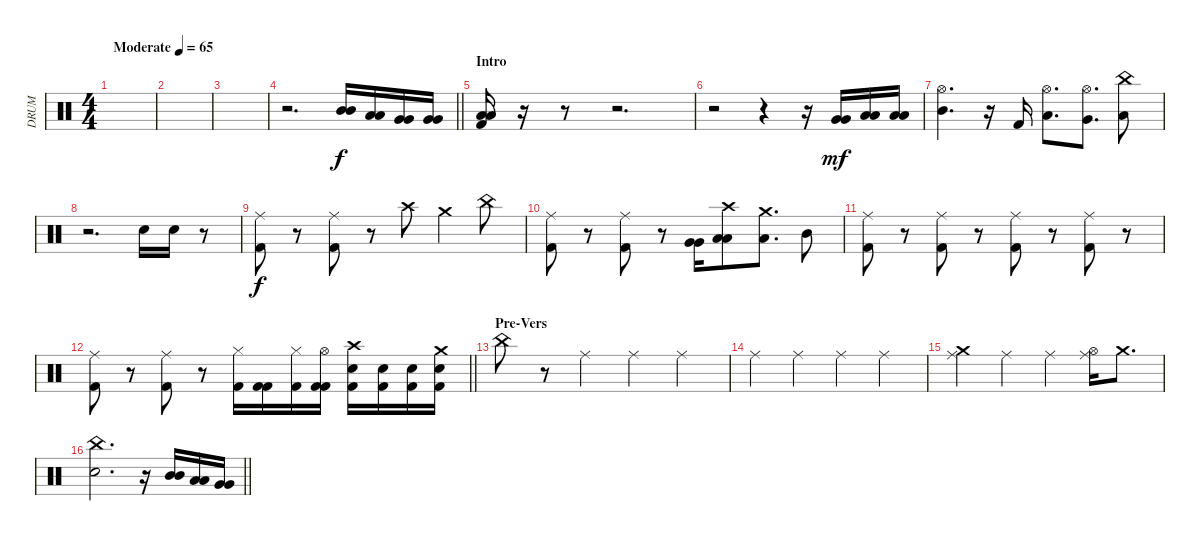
\track ("DRUM" "DRUM") {instrument percussion}
\staff {score}
\articulation defaults
\ts (4 4)
\tempo (65 "Moderate")
\clef neutral
\ks c
|
|
|
\barLineRight lightlight
r.2{d} ("Mid Tom (hit)" "Mid Tom (hit)").16 ("Low Tom (hit)" "Low Tom (hit)").16 ("Very Low Tom (hit)" "Very Low Tom (hit)").16 ("Very Low Tom (hit)" "Very Low Tom (hit)").16 |
\section ("" "Intro")
("Low Floor Tom (hit)" "Low Floor Tom (hit)" "Kick (hit) 2").16 r.16 r.8 r.2{d} |
r.2 r.4 r.16 ("Very Low Tom (hit)" "Very Low Tom (hit)").16{dy mf} ("Low Tom (hit)" "Low Tom (hit)").16 ("Low Tom (hit)" "Low Tom (hit)").16 |
("Hi-Hat (open)" "Mid Tom (hit)").4{d} r.16 "Kick (hit) 2".16 ("Hi-Hat (open)" "Low Floor Tom (hit)").8{d} ("Hi-Hat (open)" "Very Low Tom (hit)").8{d} ("China (hit)" "Low Tom (hit)").8 |
r.2{d} "Electric Snare (hit)".16 "Electric Snare (hit)".16 r.8 |
("Ride (middle)" "Kick (hit) 2").8{dy f} r.8 ("Ride (middle)" "Kick (hit) 2").8 r.8 "Crash high (hit)".8 "Crash medium (hit)".4 "China (hit)".8 |
("Ride (middle)" "Kick (hit) 2").8 r.8 ("Ride (middle)" "Kick (hit) 2").8 r.8 ("Very Low Tom (hit)" "Very Low Tom (hit)").16 ("Crash high (hit)" "Low Tom (hit)" "Low Tom (hit)").8 ("Crash medium (hit)" "Low Tom (hit)").8{d} "Mid Tom (hit)".8 |
("Ride (middle)" "Kick (hit) 2").8 r.8 ("Ride (middle)" "Kick (hit) 2").8 r.8 ("Ride (middle)" "Kick (hit) 2").8 r.8 ("Ride (middle)" "Kick (hit) 2").8 r.8 |
\barLineRight lightlight
("Ride (middle)" "Kick (hit) 2").8 r.8 ("Ride (middle)" "Kick (hit) 2").8 r.8 ("Kick (hit) 2" "Hi-Hat (closed)").16 ("Kick (hit) 2" "Kick (hit) 2").16 ("Kick (hit) 2" "Hi-Hat (closed)").16 ("Kick (hit) 2" "Kick (hit) 2" "Hi-Hat (open)").16 ("Snare (hit) 2" "Kick (hit) 2" "Crash high (hit)").16 ("Electric Snare (hit)" "Kick (hit) 2").16 ("Electric Snare (hit)" "Kick (hit) 2").16 ("Electric Snare (hit)" "Kick (hit) 2" "Crash medium (hit)").16 |
\section ("" "Pre-Vers")
"China (hit)".8 r.8 "Ride (middle)".4 "Ride (middle)".4 "Ride (middle)".4 |
"Ride (middle)".4 "Ride (middle)".4 "Ride (middle)".4 "Ride (middle)".4 |
("Ride (middle)" "Crash medium (hit)").4 "Ride (middle)".4 "Ride (middle)".4 ("Ride (middle)" "Hi-Hat (open)").16 "Crash medium (hit)".8{d} |
\barLineRight lightlight
("China (hit)" "Electric Snare (hit)").2{d} r.16 ("Mid Tom (hit)" "Mid Tom (hit)").16 ("Low Tom (hit)" "Low Tom (hit)").16 ("Very Low Tom (hit)" "Very Low Tom (hit)").16
